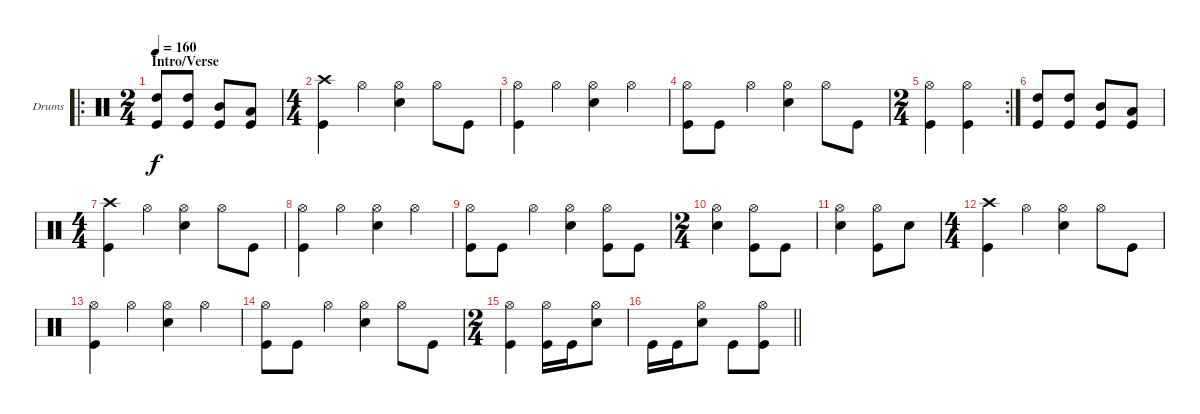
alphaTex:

\bracketExtendMode groupsimilarinstruments
\firstSystemTrackNameOrientation horizontal
\otherSystemsTrackNameOrientation horizontal
\track ("Drumkit" "Drums") {instrument percussion}
\staff {score}
\articulation defaults
\ro
\ts (2 4)
\beaming (8 2 2 2 2)
\section ("" "Intro/Verse")
\tempo 160
\clef neutral
\ks c
("High Tom (hit)" "Kick (hit)").8{dy f} ("High Tom (hit)" "Kick (hit)").8 ("Mid Tom (hit)" "Kick (hit)").8 ("Low Tom (hit)" "Kick (hit)").8 |
\ts (4 4)
\beaming (8 2 2 2 2)
("Crash high (hit)" "Kick (hit)").4 "Hi-Hat (open)".4 ("Hi-Hat (open)" "Snare (hit) 2").4 "Hi-Hat (open)".8 "Kick (hit)".8 |
("Hi-Hat (open)" "Kick (hit)").4 "Hi-Hat (open)".4 ("Hi-Hat (open)" "Snare (hit) 2").4 "Hi-Hat (open)".4 |
("Hi-Hat (open)" "Kick (hit)").8 "Kick (hit)".8 "Hi-Hat (open)".4 ("Hi-Hat (open)" "Snare (hit) 2").4 "Hi-Hat (open)".8 "Kick (hit)".8 |
\rc 2
\ts (2 4)
\beaming (8 2 2 2 2)
("Hi-Hat (open)" "Kick (hit)").4 ("Hi-Hat (open)" "Kick (hit)").4 |
("High Tom (hit)" "Kick (hit)").8 ("High Tom (hit)" "Kick (hit)").8 ("Mid Tom (hit)" "Kick (hit)").8 ("Low Tom (hit)" "Kick (hit)").8 |
\ts (4 4)
\beaming (8 2 2 2 2)
("Crash high (hit)" "Kick (hit)").4 "Hi-Hat (open)".4 ("Hi-Hat (open)" "Snare (hit) 2").4 "Hi-Hat (open)".8 "Kick (hit)".8 |
("Hi-Hat (open)" "Kick (hit)").4 "Hi-Hat (open)".4 ("Hi-Hat (open)" "Snare (hit) 2").4 "Hi-Hat (open)".4 |
("Hi-Hat (open)" "Kick (hit)").8 "Kick (hit)".8 "Hi-Hat (open)".4 ("Hi-Hat (open)" "Snare (hit) 2").4 ("Hi-Hat (open)" "Kick (hit)").8 "Kick (hit)".8 |
\ts (2 4)
\beaming (8 2 2 2 2)
("Hi-Hat (open)" "Snare (hit) 2").4 ("Hi-Hat (open)" "Kick (hit)").8 "Kick (hit)".8 |
("Hi-Hat (open)" "Snare (hit) 2").4 ("Hi-Hat (open)" "Kick (hit)").8 "Snare (hit) 2".8 |
\ts (4 4)
\beaming (8 2 2 2 2)
("Crash high (hit)" "Kick (hit)").4 "Hi-Hat (open)".4 ("Hi-Hat (open)" "Snare (hit) 2").4 "Hi-Hat (open)".8 "Kick (hit)".8 |
("Hi-Hat (open)" "Kick (hit)").4 "Hi-Hat (open)".4 ("Hi-Hat (open)" "Snare (hit) 2").4 "Hi-Hat (open)".4 |
("Hi-Hat (open)" "Kick (hit)").8 "Kick (hit)".8 "Hi-Hat (open)".4 ("Hi-Hat (open)" "Snare (hit) 2").4 "Hi-Hat (open)".8 "Kick (hit)".8 |
\ts (2 4)
\beaming (8 2 2 2 2)
("Hi-Hat (open)" "Kick (hit)").4 ("Hi-Hat (open)" "Kick (hit)").16 "Kick (hit)".16 ("Hi-Hat (open)" "Snare (hit) 2").8 |
\barLineRight lightlight "Kick (hit)".16 "Kick (hit)".16
("Hi-Hat (open)" "Snare (hit) 2").8 "Kick (hit)".8 ("Hi-Hat (open)" "Kick (hit)").8
